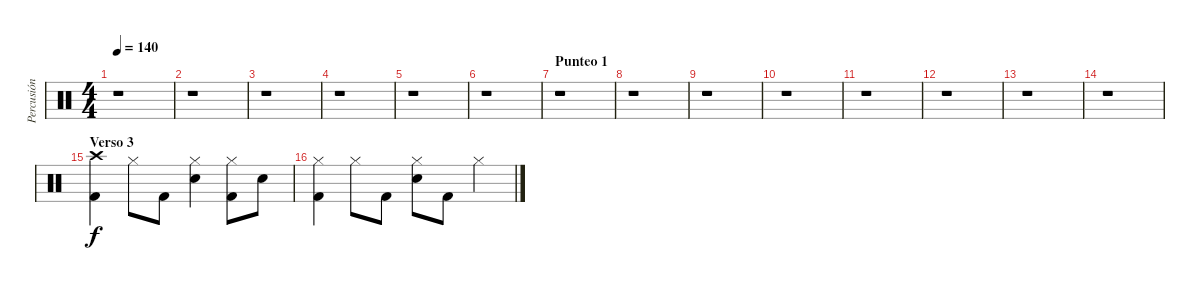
\track ("Percusión" "Percusión") {instrument percussion}
\staff {score}
\articulation defaults
\ts (4 4)
\tempo 140
\clef neutral
\ks c
r.1{dy f} |
r.1 |
r.1 |
r.1 |
r.1 |
r.1 |
\section ("" "Punteo 1")
r.1 |
r.1 |
r.1 |
r.1 |
r.1 |
r.1 |
r.1 |
r.1 |
\section ("" "Verso 3")
("Crash high (hit)" "Kick (hit) 2").4 "Hi-Hat (closed)".8 "Kick (hit) 2".8 ("Hi-Hat (closed)" "Snare (hit) 2").4 ("Hi-Hat (closed)" "Kick (hit) 2").8 "Snare (hit) 2".8 |
("Hi-Hat (closed)" "Kick (hit) 2").4 "Hi-Hat (closed)".8 "Kick (hit) 2".8 ("Hi-Hat (closed)" "Snare (hit) 2").8 "Kick (hit) 2".8 "Hi-Hat (closed)".4
